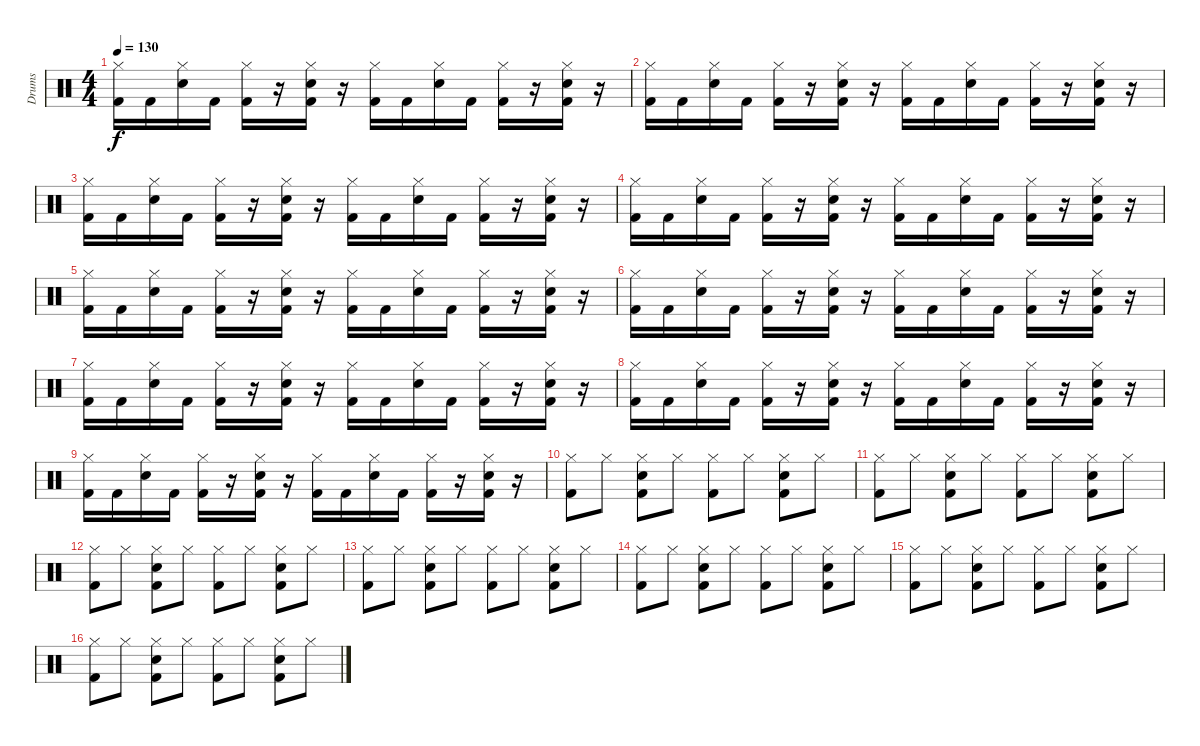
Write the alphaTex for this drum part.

\track ("Drums" "Drums") {instrument percussion}
\staff {score}
\articulation defaults
\ts (4 4)
\tempo 130
\clef neutral
\ks c
("Kick (hit) 2" "Hi-Hat (closed)").16{dy f} "Kick (hit) 2".16 ("Hi-Hat (closed)" "Electric Snare (hit)").16 "Kick (hit) 2".16 ("Kick (hit) 2" "Hi-Hat (closed)").16 r.16 ("Kick (hit) 2" "Hi-Hat (closed)" "Electric Snare (hit)").16 r.16 ("Kick (hit) 2" "Hi-Hat (closed)").16 "Kick (hit) 2".16 ("Hi-Hat (closed)" "Electric Snare (hit)").16 "Kick (hit) 2".16 ("Kick (hit) 2" "Hi-Hat (closed)").16 r.16 ("Kick (hit) 2" "Hi-Hat (closed)" "Electric Snare (hit)").16 r.16 |
("Kick (hit) 2" "Hi-Hat (closed)").16 "Kick (hit) 2".16 ("Hi-Hat (closed)" "Electric Snare (hit)").16 "Kick (hit) 2".16 ("Kick (hit) 2" "Hi-Hat (closed)").16 r.16 ("Kick (hit) 2" "Hi-Hat (closed)" "Electric Snare (hit)").16 r.16 ("Kick (hit) 2" "Hi-Hat (closed)").16 "Kick (hit) 2".16 ("Hi-Hat (closed)" "Electric Snare (hit)").16 "Kick (hit) 2".16 ("Kick (hit) 2" "Hi-Hat (closed)").16 r.16 ("Kick (hit) 2" "Hi-Hat (closed)" "Electric Snare (hit)").16 r.16 |
("Kick (hit) 2" "Hi-Hat (closed)").16 "Kick (hit) 2".16 ("Hi-Hat (closed)" "Electric Snare (hit)").16 "Kick (hit) 2".16 ("Kick (hit) 2" "Hi-Hat (closed)").16 r.16 ("Kick (hit) 2" "Hi-Hat (closed)" "Electric Snare (hit)").16 r.16 ("Kick (hit) 2" "Hi-Hat (closed)").16 "Kick (hit) 2".16 ("Hi-Hat (closed)" "Electric Snare (hit)").16 "Kick (hit) 2".16 ("Kick (hit) 2" "Hi-Hat (closed)").16 r.16 ("Kick (hit) 2" "Hi-Hat (closed)" "Electric Snare (hit)").16 r.16 |
("Kick (hit) 2" "Hi-Hat (closed)").16 "Kick (hit) 2".16 ("Hi-Hat (closed)" "Electric Snare (hit)").16 "Kick (hit) 2".16 ("Kick (hit) 2" "Hi-Hat (closed)").16 r.16 ("Kick (hit) 2" "Hi-Hat (closed)" "Electric Snare (hit)").16 r.16 ("Kick (hit) 2" "Hi-Hat (closed)").16 "Kick (hit) 2".16 ("Hi-Hat (closed)" "Electric Snare (hit)").16 "Kick (hit) 2".16 ("Kick (hit) 2" "Hi-Hat (closed)").16 r.16 ("Kick (hit) 2" "Hi-Hat (closed)" "Electric Snare (hit)").16 r.16 |
("Kick (hit) 2" "Hi-Hat (closed)").16 "Kick (hit) 2".16 ("Hi-Hat (closed)" "Electric Snare (hit)").16 "Kick (hit) 2".16 ("Kick (hit) 2" "Hi-Hat (closed)").16 r.16 ("Kick (hit) 2" "Hi-Hat (closed)" "Electric Snare (hit)").16 r.16 ("Kick (hit) 2" "Hi-Hat (closed)").16 "Kick (hit) 2".16 ("Hi-Hat (closed)" "Electric Snare (hit)").16 "Kick (hit) 2".16 ("Kick (hit) 2" "Hi-Hat (closed)").16 r.16 ("Kick (hit) 2" "Hi-Hat (closed)" "Electric Snare (hit)").16 r.16 |
("Kick (hit) 2" "Hi-Hat (closed)").16 "Kick (hit) 2".16 ("Hi-Hat (closed)" "Electric Snare (hit)").16 "Kick (hit) 2".16 ("Kick (hit) 2" "Hi-Hat (closed)").16 r.16 ("Kick (hit) 2" "Hi-Hat (closed)" "Electric Snare (hit)").16 r.16 ("Kick (hit) 2" "Hi-Hat (closed)").16 "Kick (hit) 2".16 ("Hi-Hat (closed)" "Electric Snare (hit)").16 "Kick (hit) 2".16 ("Kick (hit) 2" "Hi-Hat (closed)").16 r.16 ("Kick (hit) 2" "Hi-Hat (closed)" "Electric Snare (hit)").16 r.16 |
("Kick (hit) 2" "Hi-Hat (closed)").16 "Kick (hit) 2".16 ("Hi-Hat (closed)" "Electric Snare (hit)").16 "Kick (hit) 2".16 ("Kick (hit) 2" "Hi-Hat (closed)").16 r.16 ("Kick (hit) 2" "Hi-Hat (closed)" "Electric Snare (hit)").16 r.16 ("Kick (hit) 2" "Hi-Hat (closed)").16 "Kick (hit) 2".16 ("Hi-Hat (closed)" "Electric Snare (hit)").16 "Kick (hit) 2".16 ("Kick (hit) 2" "Hi-Hat (closed)").16 r.16 ("Kick (hit) 2" "Hi-Hat (closed)" "Electric Snare (hit)").16 r.16 |
("Kick (hit) 2" "Hi-Hat (closed)").16 "Kick (hit) 2".16 ("Hi-Hat (closed)" "Electric Snare (hit)").16 "Kick (hit) 2".16 ("Kick (hit) 2" "Hi-Hat (closed)").16 r.16 ("Kick (hit) 2" "Hi-Hat (closed)" "Electric Snare (hit)").16 r.16 ("Kick (hit) 2" "Hi-Hat (closed)").16 "Kick (hit) 2".16 ("Hi-Hat (closed)" "Electric Snare (hit)").16 "Kick (hit) 2".16 ("Kick (hit) 2" "Hi-Hat (closed)").16 r.16 ("Kick (hit) 2" "Hi-Hat (closed)" "Electric Snare (hit)").16 r.16 |
("Kick (hit) 2" "Hi-Hat (closed)").16 "Kick (hit) 2".16 ("Hi-Hat (closed)" "Electric Snare (hit)").16 "Kick (hit) 2".16 ("Kick (hit) 2" "Hi-Hat (closed)").16 r.16 ("Kick (hit) 2" "Hi-Hat (closed)" "Electric Snare (hit)").16 r.16 ("Kick (hit) 2" "Hi-Hat (closed)").16 "Kick (hit) 2".16 ("Hi-Hat (closed)" "Electric Snare (hit)").16 "Kick (hit) 2".16 ("Kick (hit) 2" "Hi-Hat (closed)").16 r.16 ("Kick (hit) 2" "Hi-Hat (closed)" "Electric Snare (hit)").16 r.16 |
("Hi-Hat (closed)" "Kick (hit) 2").8 "Hi-Hat (closed)".8 ("Hi-Hat (closed)" "Electric Snare (hit)" "Kick (hit) 2").8 "Hi-Hat (closed)".8 ("Hi-Hat (closed)" "Kick (hit) 2").8 "Hi-Hat (closed)".8 ("Hi-Hat (closed)" "Electric Snare (hit)" "Kick (hit) 2").8 "Hi-Hat (closed)".8 |
("Hi-Hat (closed)" "Kick (hit) 2").8 "Hi-Hat (closed)".8 ("Hi-Hat (closed)" "Electric Snare (hit)" "Kick (hit) 2").8 "Hi-Hat (closed)".8 ("Hi-Hat (closed)" "Kick (hit) 2").8 "Hi-Hat (closed)".8 ("Hi-Hat (closed)" "Electric Snare (hit)" "Kick (hit) 2").8 "Hi-Hat (closed)".8 |
("Hi-Hat (closed)" "Kick (hit) 2").8 "Hi-Hat (closed)".8 ("Hi-Hat (closed)" "Electric Snare (hit)" "Kick (hit) 2").8 "Hi-Hat (closed)".8 ("Hi-Hat (closed)" "Kick (hit) 2").8 "Hi-Hat (closed)".8 ("Hi-Hat (closed)" "Electric Snare (hit)" "Kick (hit) 2").8 "Hi-Hat (closed)".8 |
("Hi-Hat (closed)" "Kick (hit) 2").8 "Hi-Hat (closed)".8 ("Hi-Hat (closed)" "Electric Snare (hit)" "Kick (hit) 2").8 "Hi-Hat (closed)".8 ("Hi-Hat (closed)" "Kick (hit) 2").8 "Hi-Hat (closed)".8 ("Hi-Hat (closed)" "Electric Snare (hit)" "Kick (hit) 2").8 "Hi-Hat (closed)".8 |
("Hi-Hat (closed)" "Kick (hit) 2").8 "Hi-Hat (closed)".8 ("Hi-Hat (closed)" "Electric Snare (hit)" "Kick (hit) 2").8 "Hi-Hat (closed)".8 ("Hi-Hat (closed)" "Kick (hit) 2").8 "Hi-Hat (closed)".8 ("Hi-Hat (closed)" "Electric Snare (hit)" "Kick (hit) 2").8 "Hi-Hat (closed)".8 |
("Hi-Hat (closed)" "Kick (hit) 2").8 "Hi-Hat (closed)".8 ("Hi-Hat (closed)" "Electric Snare (hit)" "Kick (hit) 2").8 "Hi-Hat (closed)".8 ("Hi-Hat (closed)" "Kick (hit) 2").8 "Hi-Hat (closed)".8 ("Hi-Hat (closed)" "Electric Snare (hit)" "Kick (hit) 2").8 "Hi-Hat (closed)".8 |
("Hi-Hat (closed)" "Kick (hit) 2").8 "Hi-Hat (closed)".8 ("Hi-Hat (closed)" "Electric Snare (hit)" "Kick (hit) 2").8 "Hi-Hat (closed)".8 ("Hi-Hat (closed)" "Kick (hit) 2").8 "Hi-Hat (closed)".8 ("Hi-Hat (closed)" "Electric Snare (hit)" "Kick (hit) 2").8 "Hi-Hat (closed)".8
